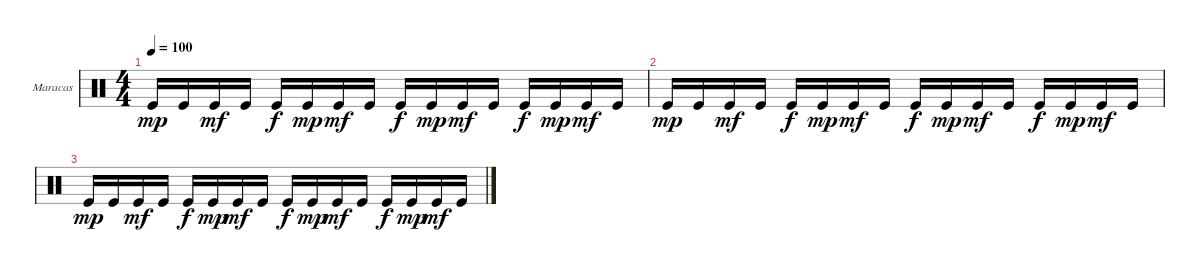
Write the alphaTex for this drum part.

\defaultSystemsLayout 4
\bracketExtendMode groupsimilarinstruments
\firstSystemTrackNameOrientation horizontal
\otherSystemsTrackNameOrientation horizontal
\track ("Maracas" "Maracas") {instrument percussion}
\staff {score}
\articulation defaults
\ts (4 4)
\tempo 100
\clef neutral
\ks c "Kick (hit)".16{dy mp} "Kick (hit)".16 "Kick (hit)".16{dy mf} "Kick (hit)".16 "Kick (hit)".16{dy f} "Kick (hit)".16{dy mp} "Kick (hit)".16{dy mf} "Kick (hit)".16 "Kick (hit)".16{dy f} "Kick (hit)".16{dy mp} "Kick (hit)".16{dy mf} "Kick (hit)".16 "Kick (hit)".16{dy f} "Kick (hit)".16{dy mp} "Kick (hit)".16{dy mf} "Kick (hit)".16
|
"Kick (hit)".16{dy mp} "Kick (hit)".16 "Kick (hit)".16{dy mf} "Kick (hit)".16 "Kick (hit)".16{dy f} "Kick (hit)".16{dy mp} "Kick (hit)".16{dy mf} "Kick (hit)".16 "Kick (hit)".16{dy f} "Kick (hit)".16{dy mp} "Kick (hit)".16{dy mf} "Kick (hit)".16 "Kick (hit)".16{dy f} "Kick (hit)".16{dy mp} "Kick (hit)".16{dy mf} "Kick (hit)".16 |
"Kick (hit)".16{dy mp} "Kick (hit)".16 "Kick (hit)".16{dy mf} "Kick (hit)".16 "Kick (hit)".16{dy f} "Kick (hit)".16{dy mp} "Kick (hit)".16{dy mf} "Kick (hit)".16 "Kick (hit)".16{dy f} "Kick (hit)".16{dy mp} "Kick (hit)".16{dy mf} "Kick (hit)".16 "Kick (hit)".16{dy f} "Kick (hit)".16{dy mp} "Kick (hit)".16{dy mf} "Kick (hit)".16
